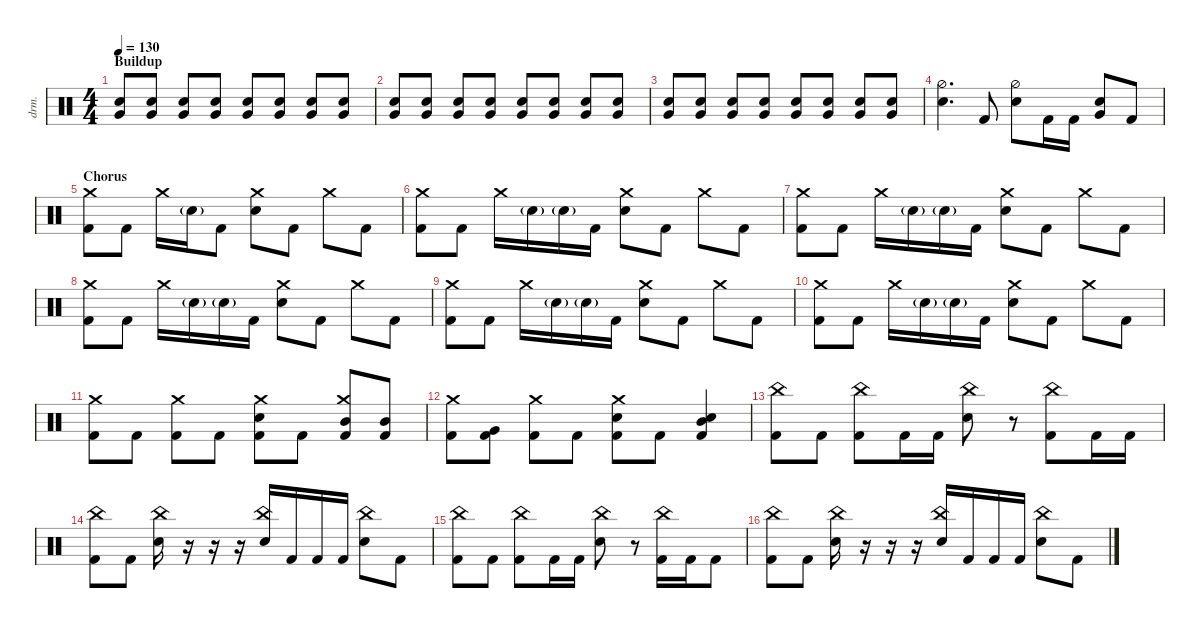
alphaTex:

\defaultSystemsLayout 4
\hideDynamics
\bracketExtendMode nobrackets
\track ("Drums - Šimon" "drm.") {instrument percussion}
\staff {score}
\articulation defaults
\ts (4 4)
\section ("" "Buildup")
\tempo 130
\clef neutral
\ks c
("Snare (hit) 2" "Very Low Tom (hit)").8{dy mf beam Up} ("Snare (hit) 2" "Very Low Tom (hit)").8{beam Up} ("Snare (hit) 2" "Very Low Tom (hit)").8{beam Up} ("Snare (hit) 2" "Very Low Tom (hit)").8{beam Up} ("Snare (hit) 2" "Very Low Tom (hit)").8{beam Up} ("Snare (hit) 2" "Very Low Tom (hit)").8{beam Up} ("Snare (hit) 2" "Very Low Tom (hit)").8{beam Up} ("Snare (hit) 2" "Very Low Tom (hit)").8{beam Up} |
("Snare (hit) 2" "Very Low Tom (hit)").8{beam Up} ("Snare (hit) 2" "Very Low Tom (hit)").8{beam Up} ("Snare (hit) 2" "Very Low Tom (hit)").8{beam Up} ("Snare (hit) 2" "Very Low Tom (hit)").8{beam Up} ("Snare (hit) 2" "Very Low Tom (hit)").8{beam Up} ("Snare (hit) 2" "Very Low Tom (hit)").8{beam Up} ("Snare (hit) 2" "Very Low Tom (hit)").8{beam Up} ("Snare (hit) 2" "Very Low Tom (hit)").8{dy ff beam Up} |
("Snare (hit) 2" "Very Low Tom (hit)").8{beam Up} ("Snare (hit) 2" "Very Low Tom (hit)").8{dy mf beam Up} ("Snare (hit) 2" "Very Low Tom (hit)").8{beam Up} ("Snare (hit) 2" "Very Low Tom (hit)").8{beam Up} ("Snare (hit) 2" "Very Low Tom (hit)").8{beam Up} ("Snare (hit) 2" "Very Low Tom (hit)").8{beam Up} ("Snare (hit) 2" "Very Low Tom (hit)").8{beam Up} ("Snare (hit) 2" "Very Low Tom (hit)").8{beam Up} |
("Snare (hit) 2" "Hi-Hat (half)").4{d dy ff beam Down} "Kick (hit) 2".8{beam Up} ("Snare (hit) 2" "Hi-Hat (half)").8{beam Down} "Kick (hit) 2".16{beam Down} "Kick (hit) 2".16{beam Down} ("Snare (hit) 2" "Very Low Tom (hit)").8{beam Up} "Kick (hit) 2".8{beam Up} |
\section ("" "Chorus")
("Kick (hit) 2" "Crash medium (hit)").8{beam Down} "Kick (hit) 2".8{beam Down} "Crash medium (hit)".16{beam Down} "Snare (hit) 2"{g}.16{beam Down} "Kick (hit) 2".8{beam Down} ("Snare (hit) 2" "Crash medium (hit)").8{beam Down} "Kick (hit) 2".8{beam Down} "Crash medium (hit)".8{beam Down} "Kick (hit) 2".8{beam Down} |
("Kick (hit) 2" "Crash medium (hit)").8{beam Down} "Kick (hit) 2".8{beam Down} "Crash medium (hit)".16{beam Down} "Snare (hit) 2"{g}.16{beam Down} "Snare (hit) 2"{g}.16{beam Down} "Kick (hit) 2".16{beam Down} ("Snare (hit) 2" "Crash medium (hit)").8{beam Down} "Kick (hit) 2".8{beam Down} "Crash medium (hit)".8{beam Down} "Kick (hit) 2".8{beam Down} |
("Kick (hit) 2" "Crash medium (hit)").8{beam Down} "Kick (hit) 2".8{beam Down} "Crash medium (hit)".16{beam Down} "Snare (hit) 2"{g}.16{beam Down} "Snare (hit) 2"{g}.16{beam Down} "Kick (hit) 2".16{beam Down} ("Snare (hit) 2" "Crash medium (hit)").8{beam Down} "Kick (hit) 2".8{beam Down} "Crash medium (hit)".8{beam Down} "Kick (hit) 2".8{beam Down} |
("Kick (hit) 2" "Crash medium (hit)").8{beam Down} "Kick (hit) 2".8{beam Down} "Crash medium (hit)".16{beam Down} "Snare (hit) 2"{g}.16{beam Down} "Snare (hit) 2"{g}.16{beam Down} "Kick (hit) 2".16{beam Down} ("Snare (hit) 2" "Crash medium (hit)").8{beam Down} "Kick (hit) 2".8{beam Down} "Crash medium (hit)".8{beam Down} "Kick (hit) 2".8{beam Down} |
("Kick (hit) 2" "Crash medium (hit)").8{beam Down} "Kick (hit) 2".8{beam Down} "Crash medium (hit)".16{beam Down} "Snare (hit) 2"{g}.16{beam Down} "Snare (hit) 2"{g}.16{beam Down} "Kick (hit) 2".16{beam Down} ("Snare (hit) 2" "Crash medium (hit)").8{beam Down} "Kick (hit) 2".8{beam Down} "Crash medium (hit)".8{beam Down} "Kick (hit) 2".8{beam Down} |
("Kick (hit) 2" "Crash medium (hit)").8{beam Down} "Kick (hit) 2".8{beam Down} "Crash medium (hit)".16{beam Down} "Snare (hit) 2"{g}.16{beam Down} "Snare (hit) 2"{g}.16{beam Down} "Kick (hit) 2".16{beam Down} ("Snare (hit) 2" "Crash medium (hit)").8{beam Down} "Kick (hit) 2".8{beam Down} "Crash medium (hit)".8{beam Down} "Kick (hit) 2".8{beam Down} |
("Kick (hit) 2" "Crash medium (hit)").8{beam Down} "Kick (hit) 2".8{beam Down} ("Kick (hit) 2" "Crash medium (hit)").8{beam Down} "Kick (hit) 2".8{beam Down} ("Kick (hit) 2" "Crash medium (hit)" "Snare (hit) 2").8{beam Down} "Kick (hit) 2".8{beam Down} ("Kick (hit) 2" "Crash medium (hit)" "Mid Tom (hit)").8{beam Up} ("Kick (hit) 2" "Mid Tom (hit)").8{beam Up} |
("Kick (hit) 2" "Crash medium (hit)").8{beam Down} ("Kick (hit) 2" "Very Low Tom (hit)").8{beam Down} ("Kick (hit) 2" "Crash medium (hit)").8{beam Down} "Kick (hit) 2".8{beam Down} ("Kick (hit) 2" "Crash medium (hit)" "Snare (hit) 2").8{beam Down} "Kick (hit) 2".8{beam Down} ("Kick (hit) 2" "Mid Tom (hit)" "Snare (hit) 2").4{beam Up} |
("Kick (hit) 2" "China (hit)").8{beam Down} "Kick (hit) 2".8{beam Down} ("China (hit)" "Kick (hit) 2").8{beam Down} "Kick (hit) 2".16{beam Down} "Kick (hit) 2".16{beam Down} ("Snare (hit) 2" "China (hit)").8{beam Down} r.8{beam Down} ("China (hit)" "Kick (hit) 2").8{beam Down} "Kick (hit) 2".16{beam Down} "Kick (hit) 2".16{beam Down} |
("Kick (hit) 2" "China (hit)").8{beam Down} "Kick (hit) 2".8{beam Down} ("China (hit)" "Snare (hit) 2").16{beam Down} r.16{beam Down} r.16{beam Down} r.16{beam Down} ("Snare (hit) 2" "China (hit)").16{beam Up} "Kick (hit) 2".16{beam Up} "Kick (hit) 2".16{beam Up} "Kick (hit) 2".16{beam Up} ("Snare (hit) 2" "China (hit)").8{beam Down} "Kick (hit) 2".8{beam Down} |
("Kick (hit) 2" "China (hit)").8{beam Down} "Kick (hit) 2".8{beam Down} ("China (hit)" "Kick (hit) 2").8{beam Down} "Kick (hit) 2".16{beam Down} "Kick (hit) 2".16{beam Down} ("Snare (hit) 2" "China (hit)").8{beam Down} r.8{beam Down} ("China (hit)" "Kick (hit) 2").16{beam Down} "Kick (hit) 2".16{beam Down} "Kick (hit) 2".8{beam Down} |
("Kick (hit) 2" "China (hit)").8{beam Down} "Kick (hit) 2".8{beam Down} ("China (hit)" "Snare (hit) 2").16{beam Down} r.16{beam Down} r.16{beam Down} r.16{beam Down} ("Snare (hit) 2" "China (hit)").16{beam Up} "Kick (hit) 2".16{beam Up} "Kick (hit) 2".16{beam Up} "Kick (hit) 2".16{beam Up} ("Snare (hit) 2" "China (hit)").8{beam Down} "Kick (hit) 2".8{beam Down}
